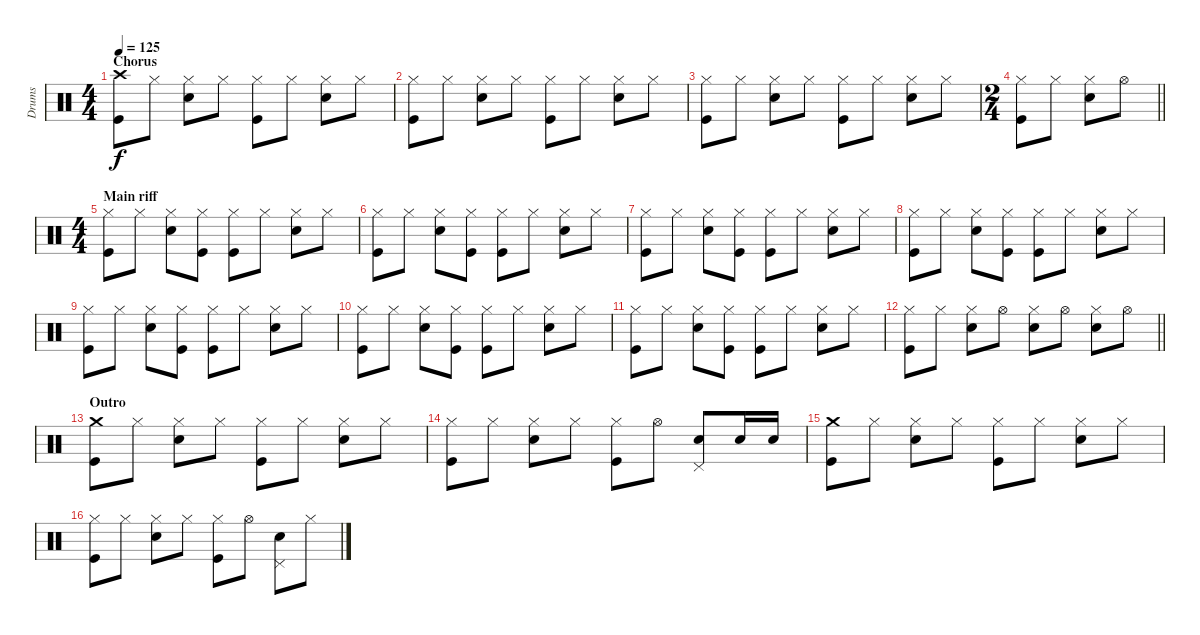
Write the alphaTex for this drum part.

\track ("Drums" "Drums") {instrument percussion}
\staff {score}
\articulation defaults
\ts (4 4)
\section ("" "Chorus")
\tempo 125
\clef neutral
\ks c
("Crash high (hit)" "Kick (hit)").8{dy f} "Hi-Hat (closed)".8 ("Hi-Hat (closed)" "Electric Snare (hit)").8 "Hi-Hat (closed)".8 ("Hi-Hat (closed)" "Kick (hit)").8 "Hi-Hat (closed)".8 ("Hi-Hat (closed)" "Electric Snare (hit)").8 "Hi-Hat (closed)".8 |
("Hi-Hat (closed)" "Kick (hit)").8 "Hi-Hat (closed)".8 ("Hi-Hat (closed)" "Electric Snare (hit)").8 "Hi-Hat (closed)".8 ("Hi-Hat (closed)" "Kick (hit)").8 "Hi-Hat (closed)".8 ("Hi-Hat (closed)" "Electric Snare (hit)").8 "Hi-Hat (closed)".8 |
("Hi-Hat (closed)" "Kick (hit)").8 "Hi-Hat (closed)".8 ("Hi-Hat (closed)" "Electric Snare (hit)").8 "Hi-Hat (closed)".8 ("Hi-Hat (closed)" "Kick (hit)").8 "Hi-Hat (closed)".8 ("Hi-Hat (closed)" "Electric Snare (hit)").8 "Hi-Hat (closed)".8 |
\ts (2 4)
\barLineRight lightlight
("Hi-Hat (closed)" "Kick (hit)").8 "Hi-Hat (closed)".8 ("Hi-Hat (closed)" "Electric Snare (hit)").8 "Hi-Hat (open)".8 |
\ts (4 4)
\section ("" "Main riff")
("Hi-Hat (closed)" "Kick (hit)").8 "Hi-Hat (closed)".8 ("Hi-Hat (closed)" "Electric Snare (hit)").8 ("Hi-Hat (closed)" "Kick (hit)").8 ("Hi-Hat (closed)" "Kick (hit)").8 "Hi-Hat (closed)".8 ("Hi-Hat (closed)" "Electric Snare (hit)").8 "Hi-Hat (closed)".8 |
("Hi-Hat (closed)" "Kick (hit)").8 "Hi-Hat (closed)".8 ("Hi-Hat (closed)" "Electric Snare (hit)").8 ("Hi-Hat (closed)" "Kick (hit)").8 ("Hi-Hat (closed)" "Kick (hit)").8 "Hi-Hat (closed)".8 ("Hi-Hat (closed)" "Electric Snare (hit)").8 "Hi-Hat (closed)".8 |
("Hi-Hat (closed)" "Kick (hit)").8 "Hi-Hat (closed)".8 ("Hi-Hat (closed)" "Electric Snare (hit)").8 ("Hi-Hat (closed)" "Kick (hit)").8 ("Hi-Hat (closed)" "Kick (hit)").8 "Hi-Hat (closed)".8 ("Hi-Hat (closed)" "Electric Snare (hit)").8 "Hi-Hat (closed)".8 |
("Hi-Hat (closed)" "Kick (hit)").8 "Hi-Hat (closed)".8 ("Hi-Hat (closed)" "Electric Snare (hit)").8 ("Hi-Hat (closed)" "Kick (hit)").8 ("Hi-Hat (closed)" "Kick (hit)").8 "Hi-Hat (closed)".8 ("Hi-Hat (closed)" "Electric Snare (hit)").8 "Hi-Hat (closed)".8 |
("Hi-Hat (closed)" "Kick (hit)").8 "Hi-Hat (closed)".8 ("Hi-Hat (closed)" "Electric Snare (hit)").8 ("Hi-Hat (closed)" "Kick (hit)").8 ("Hi-Hat (closed)" "Kick (hit)").8 "Hi-Hat (closed)".8 ("Hi-Hat (closed)" "Electric Snare (hit)").8 "Hi-Hat (closed)".8 |
("Hi-Hat (closed)" "Kick (hit)").8 "Hi-Hat (closed)".8 ("Hi-Hat (closed)" "Electric Snare (hit)").8 ("Hi-Hat (closed)" "Kick (hit)").8 ("Hi-Hat (closed)" "Kick (hit)").8 "Hi-Hat (closed)".8 ("Hi-Hat (closed)" "Electric Snare (hit)").8 "Hi-Hat (closed)".8 |
("Hi-Hat (closed)" "Kick (hit)").8 "Hi-Hat (closed)".8 ("Hi-Hat (closed)" "Electric Snare (hit)").8 ("Hi-Hat (closed)" "Kick (hit)").8 ("Hi-Hat (closed)" "Kick (hit)").8 "Hi-Hat (closed)".8 ("Hi-Hat (closed)" "Electric Snare (hit)").8 "Hi-Hat (closed)".8 |
\barLineRight lightlight
("Hi-Hat (closed)" "Kick (hit)").8 "Hi-Hat (closed)".8 ("Hi-Hat (closed)" "Electric Snare (hit)").8 "Hi-Hat (open)".8 ("Hi-Hat (closed)" "Electric Snare (hit)").8 "Hi-Hat (open)".8 ("Hi-Hat (closed)" "Electric Snare (hit)").8 "Hi-Hat (open)".8 |
\section ("" "Outro")
("Crash medium (hit)" "Kick (hit)").8 "Hi-Hat (closed)".8 ("Hi-Hat (closed)" "Electric Snare (hit)").8 "Hi-Hat (closed)".8 ("Hi-Hat (closed)" "Kick (hit)").8 "Hi-Hat (closed)".8 ("Hi-Hat (closed)" "Electric Snare (hit)").8 "Hi-Hat (closed)".8 |
("Hi-Hat (closed)" "Kick (hit)").8 "Hi-Hat (closed)".8 ("Hi-Hat (closed)" "Electric Snare (hit)").8 "Hi-Hat (closed)".8 ("Hi-Hat (closed)" "Kick (hit)").8 "Hi-Hat (open)".8 ("Pedal Hi-Hat (hit)" "Electric Snare (hit)").8 "Electric Snare (hit)".16 "Electric Snare (hit)".16 |
("Crash medium (hit)" "Kick (hit)").8 "Hi-Hat (closed)".8 ("Hi-Hat (closed)" "Electric Snare (hit)").8 "Hi-Hat (closed)".8 ("Hi-Hat (closed)" "Kick (hit)").8 "Hi-Hat (closed)".8 ("Hi-Hat (closed)" "Electric Snare (hit)").8 "Hi-Hat (closed)".8 |
("Hi-Hat (closed)" "Kick (hit)").8 "Hi-Hat (closed)".8 ("Hi-Hat (closed)" "Electric Snare (hit)").8 "Hi-Hat (closed)".8 ("Hi-Hat (closed)" "Kick (hit)").8 "Hi-Hat (open)".8 ("Pedal Hi-Hat (hit)" "Electric Snare (hit)").8 "Hi-Hat (closed)".8
